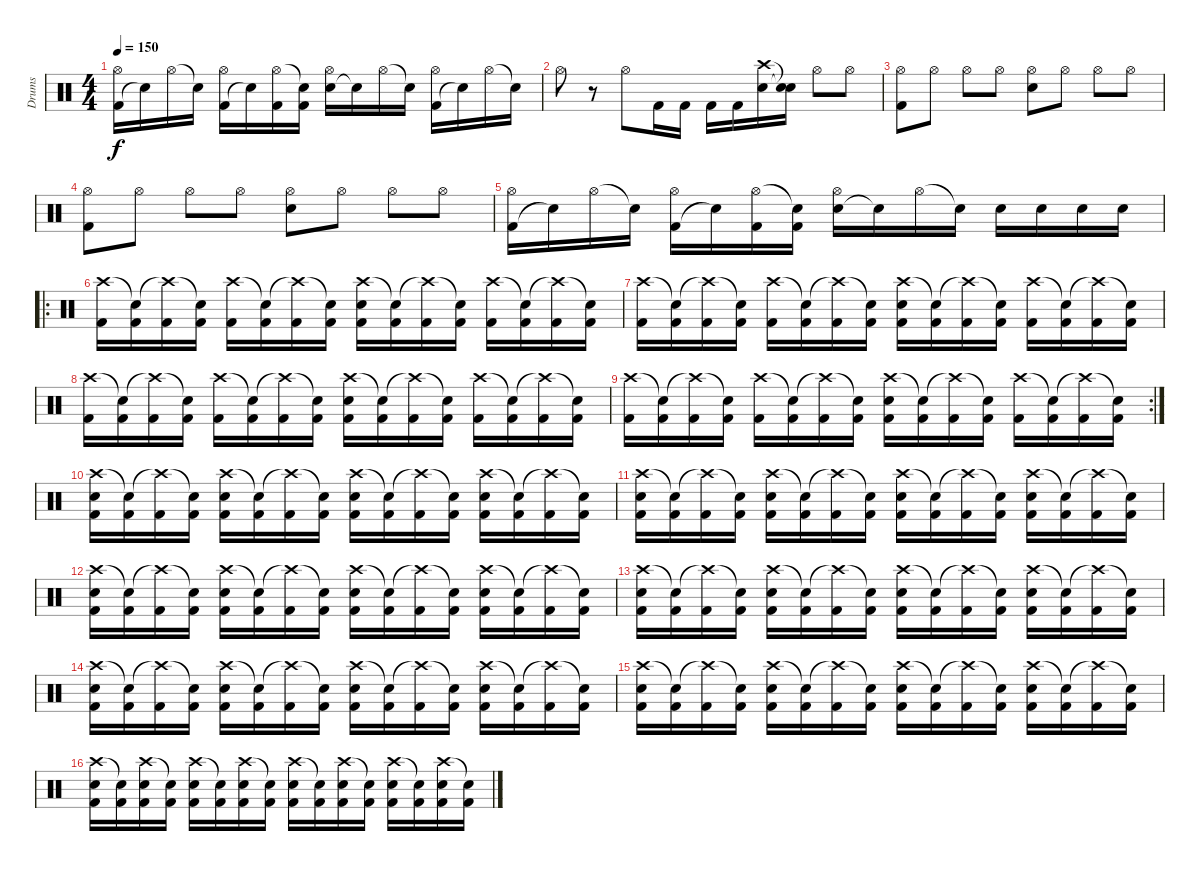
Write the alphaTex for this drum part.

\track ("Drums" "Drums") {instrument percussion}
\staff {score}
\articulation defaults
\ts (4 4)
\tempo 150
\clef neutral
\ks c
("Kick (hit) 2" "Hi-Hat (open)").16{dy f} "Snare (hit)"{t}.16 "Hi-Hat (open)".16 "Snare (hit)"{t}.16 ("Kick (hit) 2" "Hi-Hat (open)").16 "Snare (hit)"{t}.16 ("Kick (hit) 2" "Hi-Hat (open)").16 ("Kick (hit) 2" "Snare (hit)"{t}).16 ("Electric Snare (hit)" "Hi-Hat (open)").16 "Snare (hit)"{t}.16 "Hi-Hat (open)".16 "Snare (hit)"{t}.16 ("Kick (hit) 2" "Hi-Hat (open)").16 "Snare (hit)"{t}.16 "Hi-Hat (open)".16 "Snare (hit)"{t}.16 |
"Hi-Hat (open)".8 r.8 "Hi-Hat (open)".8 "Kick (hit) 2".16 "Kick (hit) 2".16 "Kick (hit) 2".16 "Kick (hit) 2".16 ("Electric Snare (hit)" "Crash high (hit)").16 ("Snare (hit)"{t} "Snare (hit)"{t}).16 "Hi-Hat (open)".8 "Hi-Hat (open)".8 |
("Kick (hit) 2" "Hi-Hat (open)").8 "Hi-Hat (open)".8 "Hi-Hat (open)".8 "Hi-Hat (open)".8 ("Electric Snare (hit)" "Hi-Hat (open)").8 "Hi-Hat (open)".8 "Hi-Hat (open)".8 "Hi-Hat (open)".8 |
("Kick (hit) 2" "Hi-Hat (open)").8 "Hi-Hat (open)".8 "Hi-Hat (open)".8 "Hi-Hat (open)".8 ("Electric Snare (hit)" "Hi-Hat (open)").8 "Hi-Hat (open)".8 "Hi-Hat (open)".8 "Hi-Hat (open)".8 |
("Kick (hit) 2" "Hi-Hat (open)").16 "Snare (hit)"{t}.16 "Hi-Hat (open)".16 "Snare (hit)"{t}.16 ("Kick (hit) 2" "Hi-Hat (open)").16 "Snare (hit)"{t}.16 ("Kick (hit) 2" "Hi-Hat (open)").16 ("Kick (hit) 2" "Snare (hit)"{t}).16 ("Electric Snare (hit)" "Hi-Hat (open)").16 "Snare (hit)"{t}.16 "Hi-Hat (open)".16 "Snare (hit)"{t}.16 "Electric Snare (hit)".16 "Electric Snare (hit)".16 "Electric Snare (hit)".16 "Electric Snare (hit)".16 |
\ro
("Kick (hit) 2" "Crash high (hit)").16 ("Kick (hit) 2" "Snare (hit)"{t}).16 ("Kick (hit) 2" "Crash high (hit)"{t}).16 ("Kick (hit) 2" "Snare (hit)"{t}).16 ("Kick (hit) 2" "Crash high (hit)").16 ("Kick (hit) 2" "Snare (hit)"{t}).16 ("Kick (hit) 2" "Crash high (hit)"{t}).16 ("Kick (hit) 2" "Snare (hit)"{t}).16 ("Kick (hit) 2" "Crash high (hit)" "Electric Snare (hit)").16 ("Kick (hit) 2" "Snare (hit)"{t}).16 ("Kick (hit) 2" "Crash high (hit)"{t}).16 ("Kick (hit) 2" "Snare (hit)"{t}).16 ("Kick (hit) 2" "Crash high (hit)").16 ("Kick (hit) 2" "Snare (hit)"{t}).16 ("Kick (hit) 2" "Crash high (hit)"{t}).16 ("Kick (hit) 2" "Snare (hit)"{t}).16 |
("Kick (hit) 2" "Crash high (hit)").16 ("Kick (hit) 2" "Snare (hit)"{t}).16 ("Kick (hit) 2" "Crash high (hit)"{t}).16 ("Kick (hit) 2" "Snare (hit)"{t}).16 ("Kick (hit) 2" "Crash high (hit)").16 ("Kick (hit) 2" "Snare (hit)"{t}).16 ("Kick (hit) 2" "Crash high (hit)"{t}).16 ("Kick (hit) 2" "Snare (hit)"{t}).16 ("Kick (hit) 2" "Crash high (hit)" "Electric Snare (hit)").16 ("Kick (hit) 2" "Snare (hit)"{t}).16 ("Kick (hit) 2" "Crash high (hit)"{t}).16 ("Kick (hit) 2" "Snare (hit)"{t}).16 ("Kick (hit) 2" "Crash high (hit)").16 ("Kick (hit) 2" "Snare (hit)"{t}).16 ("Kick (hit) 2" "Crash high (hit)"{t}).16 ("Kick (hit) 2" "Snare (hit)"{t}).16 |
("Kick (hit) 2" "Crash high (hit)").16 ("Kick (hit) 2" "Snare (hit)"{t}).16 ("Kick (hit) 2" "Crash high (hit)"{t}).16 ("Kick (hit) 2" "Snare (hit)"{t}).16 ("Kick (hit) 2" "Crash high (hit)").16 ("Kick (hit) 2" "Snare (hit)"{t}).16 ("Kick (hit) 2" "Crash high (hit)"{t}).16 ("Kick (hit) 2" "Snare (hit)"{t}).16 ("Kick (hit) 2" "Crash high (hit)" "Electric Snare (hit)").16 ("Kick (hit) 2" "Snare (hit)"{t}).16 ("Kick (hit) 2" "Crash high (hit)"{t}).16 ("Kick (hit) 2" "Snare (hit)"{t}).16 ("Kick (hit) 2" "Crash high (hit)").16 ("Kick (hit) 2" "Snare (hit)"{t}).16 ("Kick (hit) 2" "Crash high (hit)"{t}).16 ("Kick (hit) 2" "Snare (hit)"{t}).16 |
\rc 2
("Kick (hit) 2" "Crash high (hit)").16 ("Kick (hit) 2" "Snare (hit)"{t}).16 ("Kick (hit) 2" "Crash high (hit)"{t}).16 ("Kick (hit) 2" "Snare (hit)"{t}).16 ("Kick (hit) 2" "Crash high (hit)").16 ("Kick (hit) 2" "Snare (hit)"{t}).16 ("Kick (hit) 2" "Crash high (hit)"{t}).16 ("Kick (hit) 2" "Snare (hit)"{t}).16 ("Kick (hit) 2" "Crash high (hit)" "Electric Snare (hit)").16 ("Kick (hit) 2" "Snare (hit)"{t}).16 ("Kick (hit) 2" "Crash high (hit)"{t}).16 ("Kick (hit) 2" "Snare (hit)"{t}).16 ("Kick (hit) 2" "Crash high (hit)").16 ("Kick (hit) 2" "Snare (hit)"{t}).16 ("Kick (hit) 2" "Crash high (hit)"{t}).16 ("Kick (hit) 2" "Snare (hit)"{t}).16 |
("Kick (hit) 2" "Crash high (hit)" "Electric Snare (hit)").16 ("Kick (hit) 2" "Snare (hit)"{t}).16 ("Kick (hit) 2" "Crash high (hit)"{t}).16 ("Kick (hit) 2" "Snare (hit)"{t}).16 ("Kick (hit) 2" "Crash high (hit)" "Electric Snare (hit)").16 ("Kick (hit) 2" "Snare (hit)"{t}).16 ("Kick (hit) 2" "Crash high (hit)"{t}).16 ("Kick (hit) 2" "Snare (hit)"{t}).16 ("Kick (hit) 2" "Crash high (hit)" "Electric Snare (hit)").16 ("Kick (hit) 2" "Snare (hit)"{t}).16 ("Kick (hit) 2" "Crash high (hit)"{t}).16 ("Kick (hit) 2" "Snare (hit)"{t}).16 ("Kick (hit) 2" "Crash high (hit)" "Electric Snare (hit)").16 ("Kick (hit) 2" "Snare (hit)"{t}).16 ("Kick (hit) 2" "Crash high (hit)"{t}).16 ("Kick (hit) 2" "Snare (hit)"{t}).16 |
("Kick (hit) 2" "Crash high (hit)" "Electric Snare (hit)").16 ("Kick (hit) 2" "Snare (hit)"{t}).16 ("Kick (hit) 2" "Crash high (hit)"{t}).16 ("Kick (hit) 2" "Snare (hit)"{t}).16 ("Kick (hit) 2" "Crash high (hit)" "Electric Snare (hit)").16 ("Kick (hit) 2" "Snare (hit)"{t}).16 ("Kick (hit) 2" "Crash high (hit)"{t}).16 ("Kick (hit) 2" "Snare (hit)"{t}).16 ("Kick (hit) 2" "Crash high (hit)" "Electric Snare (hit)").16 ("Kick (hit) 2" "Snare (hit)"{t}).16 ("Kick (hit) 2" "Crash high (hit)"{t}).16 ("Kick (hit) 2" "Snare (hit)"{t}).16 ("Kick (hit) 2" "Crash high (hit)" "Electric Snare (hit)").16 ("Kick (hit) 2" "Snare (hit)"{t}).16 ("Kick (hit) 2" "Crash high (hit)"{t}).16 ("Kick (hit) 2" "Snare (hit)"{t}).16 |
("Kick (hit) 2" "Crash high (hit)" "Electric Snare (hit)").16 ("Kick (hit) 2" "Snare (hit)"{t}).16 ("Kick (hit) 2" "Crash high (hit)"{t}).16 ("Kick (hit) 2" "Snare (hit)"{t}).16 ("Kick (hit) 2" "Crash high (hit)" "Electric Snare (hit)").16 ("Kick (hit) 2" "Snare (hit)"{t}).16 ("Kick (hit) 2" "Crash high (hit)"{t}).16 ("Kick (hit) 2" "Snare (hit)"{t}).16 ("Kick (hit) 2" "Crash high (hit)" "Electric Snare (hit)").16 ("Kick (hit) 2" "Snare (hit)"{t}).16 ("Kick (hit) 2" "Crash high (hit)"{t}).16 ("Kick (hit) 2" "Snare (hit)"{t}).16 ("Kick (hit) 2" "Crash high (hit)" "Electric Snare (hit)").16 ("Kick (hit) 2" "Snare (hit)"{t}).16 ("Kick (hit) 2" "Crash high (hit)"{t}).16 ("Kick (hit) 2" "Snare (hit)"{t}).16 |
("Kick (hit) 2" "Crash high (hit)" "Electric Snare (hit)").16 ("Kick (hit) 2" "Snare (hit)"{t}).16 ("Kick (hit) 2" "Crash high (hit)"{t}).16 ("Kick (hit) 2" "Snare (hit)"{t}).16 ("Kick (hit) 2" "Crash high (hit)" "Electric Snare (hit)").16 ("Kick (hit) 2" "Snare (hit)"{t}).16 ("Kick (hit) 2" "Crash high (hit)"{t}).16 ("Kick (hit) 2" "Snare (hit)"{t}).16 ("Kick (hit) 2" "Crash high (hit)" "Electric Snare (hit)").16 ("Kick (hit) 2" "Snare (hit)"{t}).16 ("Kick (hit) 2" "Crash high (hit)"{t}).16 ("Kick (hit) 2" "Snare (hit)"{t}).16 ("Kick (hit) 2" "Crash high (hit)" "Electric Snare (hit)").16 ("Kick (hit) 2" "Snare (hit)"{t}).16 ("Kick (hit) 2" "Crash high (hit)"{t}).16 ("Kick (hit) 2" "Snare (hit)"{t}).16 |
("Kick (hit) 2" "Crash high (hit)" "Electric Snare (hit)").16 ("Kick (hit) 2" "Snare (hit)"{t}).16 ("Kick (hit) 2" "Crash high (hit)"{t}).16 ("Kick (hit) 2" "Snare (hit)"{t}).16 ("Kick (hit) 2" "Crash high (hit)" "Electric Snare (hit)").16 ("Kick (hit) 2" "Snare (hit)"{t}).16 ("Kick (hit) 2" "Crash high (hit)"{t}).16 ("Kick (hit) 2" "Snare (hit)"{t}).16 ("Kick (hit) 2" "Crash high (hit)" "Electric Snare (hit)").16 ("Kick (hit) 2" "Snare (hit)"{t}).16 ("Kick (hit) 2" "Crash high (hit)"{t}).16 ("Kick (hit) 2" "Snare (hit)"{t}).16 ("Kick (hit) 2" "Crash high (hit)" "Electric Snare (hit)").16 ("Kick (hit) 2" "Snare (hit)"{t}).16 ("Kick (hit) 2" "Crash high (hit)"{t}).16 ("Kick (hit) 2" "Snare (hit)"{t}).16 |
("Kick (hit) 2" "Crash high (hit)" "Electric Snare (hit)").16 ("Kick (hit) 2" "Snare (hit)"{t}).16 ("Kick (hit) 2" "Crash high (hit)"{t}).16 ("Kick (hit) 2" "Snare (hit)"{t}).16 ("Kick (hit) 2" "Crash high (hit)" "Electric Snare (hit)").16 ("Kick (hit) 2" "Snare (hit)"{t}).16 ("Kick (hit) 2" "Crash high (hit)"{t}).16 ("Kick (hit) 2" "Snare (hit)"{t}).16 ("Kick (hit) 2" "Crash high (hit)" "Electric Snare (hit)").16 ("Kick (hit) 2" "Snare (hit)"{t}).16 ("Kick (hit) 2" "Crash high (hit)"{t}).16 ("Kick (hit) 2" "Snare (hit)"{t}).16 ("Kick (hit) 2" "Crash high (hit)" "Electric Snare (hit)").16 ("Kick (hit) 2" "Snare (hit)"{t}).16 ("Kick (hit) 2" "Crash high (hit)"{t}).16 ("Kick (hit) 2" "Snare (hit)"{t}).16 |
("Kick (hit) 2" "Crash high (hit)" "Electric Snare (hit)").16 ("Kick (hit) 2" "Snare (hit)"{t}).16 ("Kick (hit) 2" "Crash high (hit)" "Electric Snare (hit)").16 ("Kick (hit) 2" "Snare (hit)"{t}).16 ("Kick (hit) 2" "Crash high (hit)" "Electric Snare (hit)").16 ("Kick (hit) 2" "Snare (hit)"{t}).16 ("Kick (hit) 2" "Crash high (hit)" "Electric Snare (hit)").16 ("Kick (hit) 2" "Snare (hit)"{t}).16 ("Kick (hit) 2" "Crash high (hit)" "Electric Snare (hit)").16 ("Kick (hit) 2" "Snare (hit)"{t}).16 ("Kick (hit) 2" "Crash high (hit)" "Electric Snare (hit)").16 ("Kick (hit) 2" "Snare (hit)"{t}).16 ("Kick (hit) 2" "Crash high (hit)" "Electric Snare (hit)").16 ("Kick (hit) 2" "Snare (hit)"{t}).16 ("Kick (hit) 2" "Crash high (hit)" "Electric Snare (hit)").16 ("Kick (hit) 2" "Snare (hit)"{t}).16
